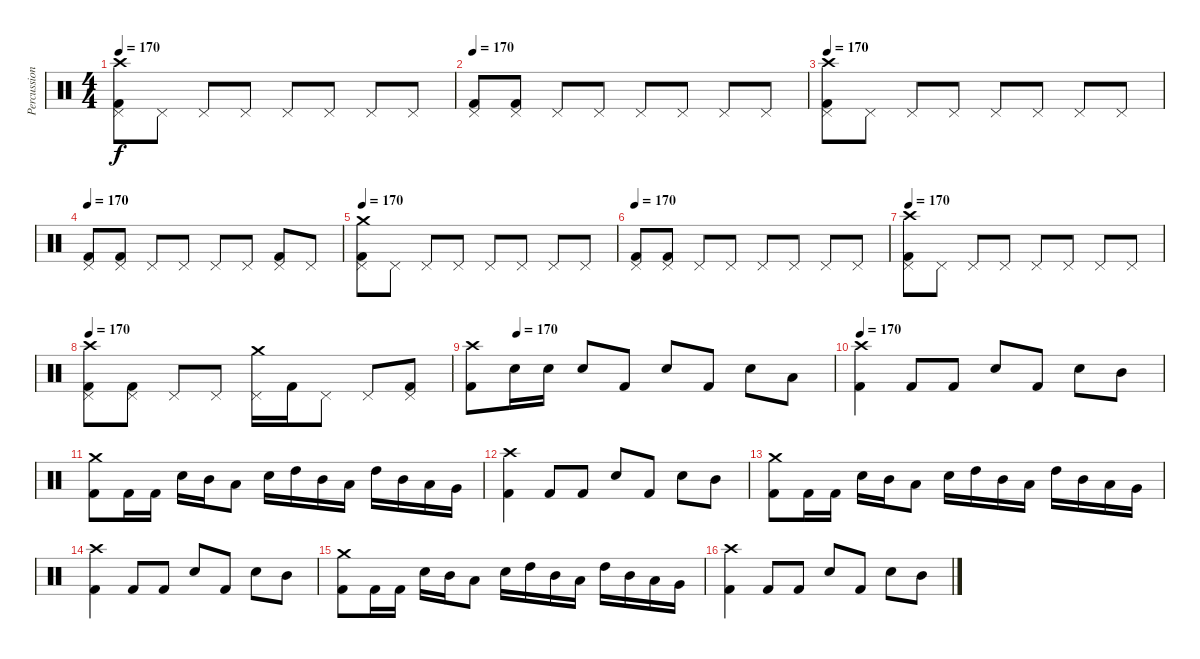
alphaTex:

\track ("Percussion" "Percussion") {instrument percussion}
\staff {score}
\articulation defaults
\ts (4 4)
\tempo 170
\clef neutral
\ks c
("Crash high (hit)" "Pedal Hi-Hat (hit)" "Kick (hit) 2").8{dy f} "Pedal Hi-Hat (hit)".8 "Pedal Hi-Hat (hit)".8 "Pedal Hi-Hat (hit)".8 "Pedal Hi-Hat (hit)".8 "Pedal Hi-Hat (hit)".8 "Pedal Hi-Hat (hit)".8 "Pedal Hi-Hat (hit)".8 |
\tempo 170
("Pedal Hi-Hat (hit)" "Kick (hit) 2").8 ("Pedal Hi-Hat (hit)" "Kick (hit) 2").8 "Pedal Hi-Hat (hit)".8 "Pedal Hi-Hat (hit)".8 "Pedal Hi-Hat (hit)".8 "Pedal Hi-Hat (hit)".8 "Pedal Hi-Hat (hit)".8 "Pedal Hi-Hat (hit)".8 |
\tempo 170
("Crash high (hit)" "Pedal Hi-Hat (hit)" "Kick (hit) 2").8 "Pedal Hi-Hat (hit)".8 "Pedal Hi-Hat (hit)".8 "Pedal Hi-Hat (hit)".8 "Pedal Hi-Hat (hit)".8 "Pedal Hi-Hat (hit)".8 "Pedal Hi-Hat (hit)".8 "Pedal Hi-Hat (hit)".8 |
\tempo 170
("Pedal Hi-Hat (hit)" "Kick (hit) 2").8 ("Pedal Hi-Hat (hit)" "Kick (hit) 2").8 "Pedal Hi-Hat (hit)".8 "Pedal Hi-Hat (hit)".8 "Pedal Hi-Hat (hit)".8 "Pedal Hi-Hat (hit)".8 ("Pedal Hi-Hat (hit)" "Kick (hit) 2").8 "Pedal Hi-Hat (hit)".8 |
\tempo 170
("Crash medium (hit)" "Pedal Hi-Hat (hit)" "Kick (hit) 2").8 "Pedal Hi-Hat (hit)".8 "Pedal Hi-Hat (hit)".8 "Pedal Hi-Hat (hit)".8 "Pedal Hi-Hat (hit)".8 "Pedal Hi-Hat (hit)".8 "Pedal Hi-Hat (hit)".8 "Pedal Hi-Hat (hit)".8 |
\tempo 170
("Pedal Hi-Hat (hit)" "Kick (hit) 2").8 ("Pedal Hi-Hat (hit)" "Kick (hit) 2").8 "Pedal Hi-Hat (hit)".8 "Pedal Hi-Hat (hit)".8 "Pedal Hi-Hat (hit)".8 "Pedal Hi-Hat (hit)".8 "Pedal Hi-Hat (hit)".8 "Pedal Hi-Hat (hit)".8 |
\tempo 170
("Crash high (hit)" "Pedal Hi-Hat (hit)" "Kick (hit) 2").8 "Pedal Hi-Hat (hit)".8 "Pedal Hi-Hat (hit)".8 "Pedal Hi-Hat (hit)".8 "Pedal Hi-Hat (hit)".8 "Pedal Hi-Hat (hit)".8 "Pedal Hi-Hat (hit)".8 "Pedal Hi-Hat (hit)".8 |
\tempo 170
("Crash high (hit)" "Pedal Hi-Hat (hit)" "Kick (hit) 2").8 ("Pedal Hi-Hat (hit)" "Kick (hit) 2").8 "Pedal Hi-Hat (hit)".8 "Pedal Hi-Hat (hit)".8 ("Crash medium (hit)" "Pedal Hi-Hat (hit)").16 "Kick (hit) 2".16 "Pedal Hi-Hat (hit)".8 "Pedal Hi-Hat (hit)".8 ("Pedal Hi-Hat (hit)" "Kick (hit) 2").8 |
\tempo (170 0.125)
("Crash high (hit)" "Kick (hit) 2").8 "Electric Snare (hit)".16 "Electric Snare (hit)".16 "Electric Snare (hit)".8 "Kick (hit) 2".8 "Electric Snare (hit)".8 "Kick (hit) 2".8 "Electric Snare (hit)".8 "Low Tom (hit)".8 |
\tempo 170
("Crash high (hit)" "Kick (hit) 2").4 "Kick (hit) 2".8 "Kick (hit) 2".8 "Electric Snare (hit)".8 "Kick (hit) 2".8 "Electric Snare (hit)".8 "Mid Tom (hit)".8 |
("Crash medium (hit)" "Kick (hit) 2").8 "Kick (hit) 2".16 "Kick (hit) 2".16 "Electric Snare (hit)".16 "Mid Tom (hit)".16 "Low Tom (hit)".8 "Electric Snare (hit)".16 "High Tom (hit)".16 "Mid Tom (hit)".16 "Low Tom (hit)".16 "High Tom (hit)".16 "Mid Tom (hit)".16 "Low Tom (hit)".16 "Very Low Tom (hit)".16 |
("Crash high (hit)" "Kick (hit) 2").4 "Kick (hit) 2".8 "Kick (hit) 2".8 "Electric Snare (hit)".8 "Kick (hit) 2".8 "Electric Snare (hit)".8 "Mid Tom (hit)".8 |
("Crash medium (hit)" "Kick (hit) 2").8 "Kick (hit) 2".16 "Kick (hit) 2".16 "Electric Snare (hit)".16 "Mid Tom (hit)".16 "Low Tom (hit)".8 "Electric Snare (hit)".16 "High Tom (hit)".16 "Mid Tom (hit)".16 "Low Tom (hit)".16 "High Tom (hit)".16 "Mid Tom (hit)".16 "Low Tom (hit)".16 "Very Low Tom (hit)".16 |
("Crash high (hit)" "Kick (hit) 2").4 "Kick (hit) 2".8 "Kick (hit) 2".8 "Electric Snare (hit)".8 "Kick (hit) 2".8 "Electric Snare (hit)".8 "Mid Tom (hit)".8 |
("Crash medium (hit)" "Kick (hit) 2").8 "Kick (hit) 2".16 "Kick (hit) 2".16 "Electric Snare (hit)".16 "Mid Tom (hit)".16 "Low Tom (hit)".8 "Electric Snare (hit)".16 "High Tom (hit)".16 "Mid Tom (hit)".16 "Low Tom (hit)".16 "High Tom (hit)".16 "Mid Tom (hit)".16 "Low Tom (hit)".16 "Very Low Tom (hit)".16 |
("Crash high (hit)" "Kick (hit) 2").4 "Kick (hit) 2".8 "Kick (hit) 2".8 "Electric Snare (hit)".8 "Kick (hit) 2".8 "Electric Snare (hit)".8 "Mid Tom (hit)".8
